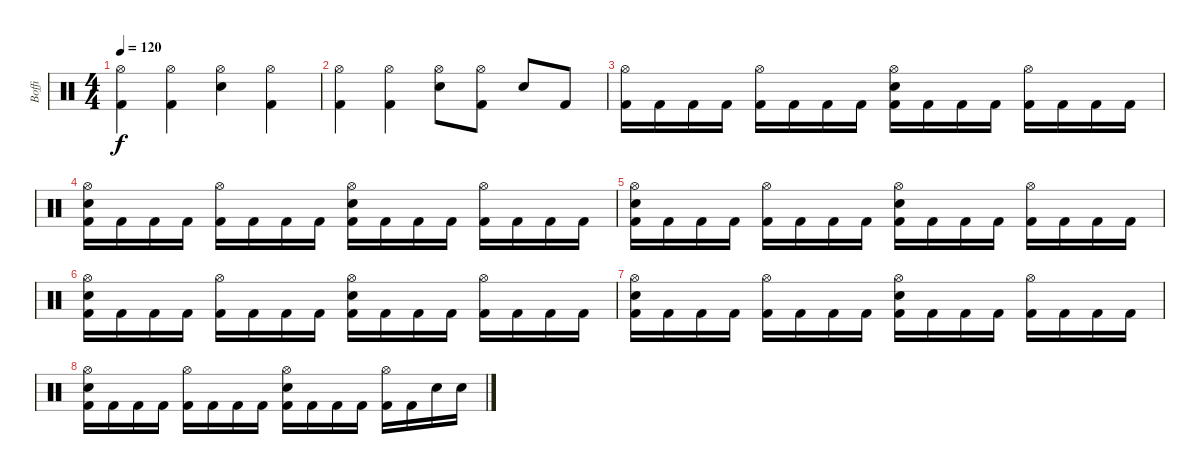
\track ("Boffi" "Boffi") {instrument percussion}
\staff {score}
\articulation defaults
\ts (4 4)
\tempo 120
\clef neutral
\ks c
("Hi-Hat (open)" "Kick (hit) 2").4{dy f} ("Hi-Hat (open)" "Kick (hit) 2").4 ("Hi-Hat (open)" "Snare (hit) 2").4 ("Hi-Hat (open)" "Kick (hit) 2").4 |
("Hi-Hat (open)" "Kick (hit) 2").4 ("Hi-Hat (open)" "Kick (hit) 2").4 ("Hi-Hat (open)" "Snare (hit) 2").8 ("Hi-Hat (open)" "Kick (hit) 2").8 "Snare (hit) 2".8 "Kick (hit) 2".8 |
("Kick (hit) 2" "Hi-Hat (open)").16 "Kick (hit) 2".16 "Kick (hit) 2".16 "Kick (hit) 2".16 ("Kick (hit) 2" "Hi-Hat (open)").16 "Kick (hit) 2".16 "Kick (hit) 2".16 "Kick (hit) 2".16 ("Snare (hit) 2" "Kick (hit) 2" "Hi-Hat (open)").16 "Kick (hit) 2".16 "Kick (hit) 2".16 "Kick (hit) 2".16 ("Kick (hit) 2" "Hi-Hat (open)").16 "Kick (hit) 2".16 "Kick (hit) 2".16 "Kick (hit) 2".16 |
("Snare (hit) 2" "Kick (hit) 2" "Hi-Hat (open)").16 "Kick (hit) 2".16 "Kick (hit) 2".16 "Kick (hit) 2".16 ("Kick (hit) 2" "Hi-Hat (open)").16 "Kick (hit) 2".16 "Kick (hit) 2".16 "Kick (hit) 2".16 ("Snare (hit) 2" "Kick (hit) 2" "Hi-Hat (open)").16 "Kick (hit) 2".16 "Kick (hit) 2".16 "Kick (hit) 2".16 ("Kick (hit) 2" "Hi-Hat (open)").16 "Kick (hit) 2".16 "Kick (hit) 2".16 "Kick (hit) 2".16 |
("Snare (hit) 2" "Kick (hit) 2" "Hi-Hat (open)").16 "Kick (hit) 2".16 "Kick (hit) 2".16 "Kick (hit) 2".16 ("Kick (hit) 2" "Hi-Hat (open)").16 "Kick (hit) 2".16 "Kick (hit) 2".16 "Kick (hit) 2".16 ("Snare (hit) 2" "Kick (hit) 2" "Hi-Hat (open)").16 "Kick (hit) 2".16 "Kick (hit) 2".16 "Kick (hit) 2".16 ("Kick (hit) 2" "Hi-Hat (open)").16 "Kick (hit) 2".16 "Kick (hit) 2".16 "Kick (hit) 2".16 |
("Snare (hit) 2" "Kick (hit) 2" "Hi-Hat (open)").16 "Kick (hit) 2".16 "Kick (hit) 2".16 "Kick (hit) 2".16 ("Kick (hit) 2" "Hi-Hat (open)").16 "Kick (hit) 2".16 "Kick (hit) 2".16 "Kick (hit) 2".16 ("Snare (hit) 2" "Kick (hit) 2" "Hi-Hat (open)").16 "Kick (hit) 2".16 "Kick (hit) 2".16 "Kick (hit) 2".16 ("Kick (hit) 2" "Hi-Hat (open)").16 "Kick (hit) 2".16 "Kick (hit) 2".16 "Kick (hit) 2".16 |
("Snare (hit) 2" "Kick (hit) 2" "Hi-Hat (open)").16 "Kick (hit) 2".16 "Kick (hit) 2".16 "Kick (hit) 2".16 ("Kick (hit) 2" "Hi-Hat (open)").16 "Kick (hit) 2".16 "Kick (hit) 2".16 "Kick (hit) 2".16 ("Snare (hit) 2" "Kick (hit) 2" "Hi-Hat (open)").16 "Kick (hit) 2".16 "Kick (hit) 2".16 "Kick (hit) 2".16 ("Kick (hit) 2" "Hi-Hat (open)").16 "Kick (hit) 2".16 "Kick (hit) 2".16 "Kick (hit) 2".16 |
("Snare (hit) 2" "Kick (hit) 2" "Hi-Hat (open)").16 "Kick (hit) 2".16 "Kick (hit) 2".16 "Kick (hit) 2".16 ("Kick (hit) 2" "Hi-Hat (open)").16 "Kick (hit) 2".16 "Kick (hit) 2".16 "Kick (hit) 2".16 ("Snare (hit) 2" "Kick (hit) 2" "Hi-Hat (open)").16 "Kick (hit) 2".16 "Kick (hit) 2".16 "Kick (hit) 2".16 ("Kick (hit) 2" "Hi-Hat (open)").16 "Kick (hit) 2".16 "Snare (hit) 2".16 "Snare (hit) 2".16
